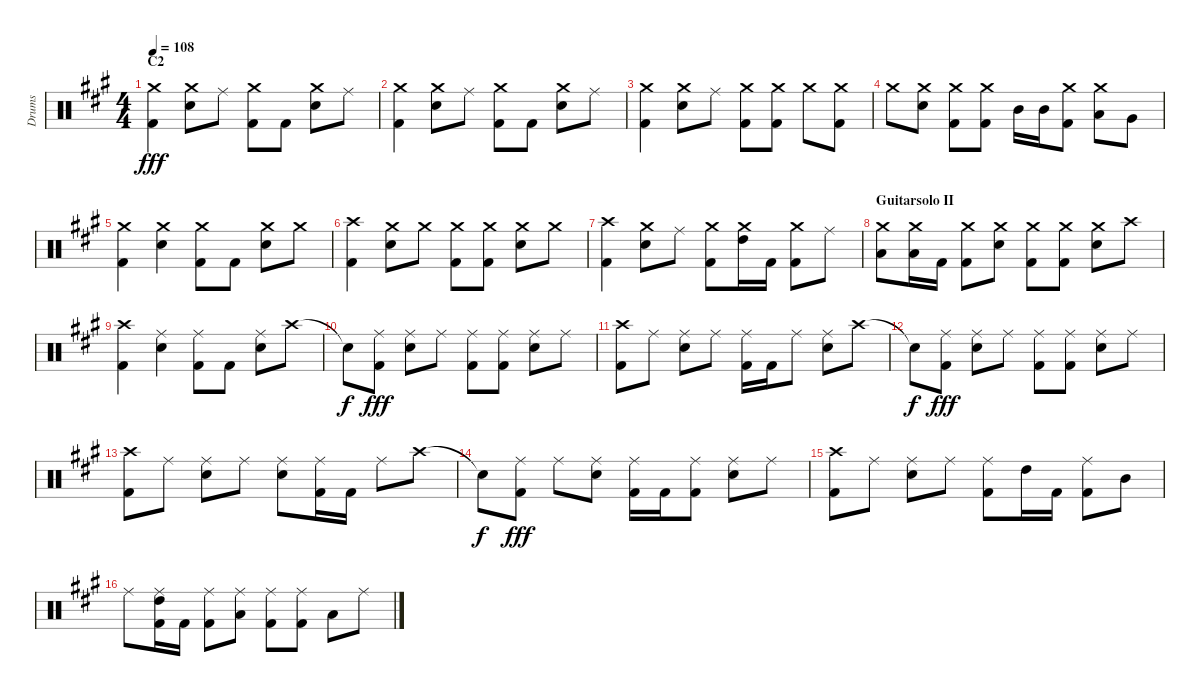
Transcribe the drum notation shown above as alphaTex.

\track ("Drums" "Drums") {instrument percussion}
\staff {score}
\articulation defaults
\ts (4 4)
\section ("" "C2")
\tempo 108
\clef neutral
\ks a
("Crash medium (hit)" "Kick (hit) 2").4{dy fff} ("Crash medium (hit)" "Electric Snare (hit)").8 "Ride (middle)".8 ("Crash medium (hit)" "Kick (hit) 2").8 "Kick (hit) 2".8 ("Crash medium (hit)" "Electric Snare (hit)").8 "Ride (middle)".8 |
("Crash medium (hit)" "Kick (hit) 2").4 ("Crash medium (hit)" "Electric Snare (hit)").8 "Ride (middle)".8 ("Crash medium (hit)" "Kick (hit) 2").8 "Kick (hit) 2".8 ("Crash medium (hit)" "Electric Snare (hit)").8 "Ride (middle)".8 |
("Crash medium (hit)" "Kick (hit) 2").4 ("Crash medium (hit)" "Electric Snare (hit)").8 "Ride (middle)".8 ("Crash medium (hit)" "Kick (hit) 2").8 ("Crash medium (hit)" "Kick (hit) 2").8 "Crash medium (hit)".8 ("Crash medium (hit)" "Kick (hit) 2").8 |
"Crash medium (hit)".8 ("Crash medium (hit)" "Electric Snare (hit)").8 ("Crash medium (hit)" "Kick (hit) 2").8 ("Crash medium (hit)" "Kick (hit) 2").8 "Mid Tom (hit)".16 "Mid Tom (hit)".16 ("Crash medium (hit)" "Kick (hit) 2").8 ("Crash medium (hit)" "Low Tom (hit)").8 "Very Low Tom (hit)".8 |
("Crash medium (hit)" "Kick (hit) 2").4 ("Crash medium (hit)" "Electric Snare (hit)").4 ("Crash medium (hit)" "Kick (hit) 2").8 "Kick (hit) 2".8 ("Crash medium (hit)" "Electric Snare (hit)").8 "Crash medium (hit)".8 |
("Crash high (hit)" "Kick (hit) 2").4 ("Crash medium (hit)" "Electric Snare (hit)").8 "Crash medium (hit)".8 ("Crash medium (hit)" "Kick (hit) 2").8 ("Crash medium (hit)" "Kick (hit) 2").8 ("Crash medium (hit)" "Electric Snare (hit)").8 "Crash medium (hit)".8 |
("Crash high (hit)" "Kick (hit) 2").4 ("Crash medium (hit)" "Electric Snare (hit)").8 "Ride (middle)".8 ("Crash medium (hit)" "Kick (hit) 2").8 ("Crash medium (hit)" "High Tom (hit)").16 "Kick (hit) 2".16 ("Crash medium (hit)" "Kick (hit) 2").8 "Ride (middle)".8 |
\section ("" "Guitarsolo II")
("Crash medium (hit)" "Low Tom (hit)").8 ("Crash medium (hit)" "Low Floor Tom (hit)").16 "Kick (hit) 2".16 ("Crash medium (hit)" "Kick (hit) 2").8 ("Crash medium (hit)" "Electric Snare (hit)").8 ("Crash medium (hit)" "Kick (hit) 2").8 ("Crash medium (hit)" "Kick (hit) 2").8 ("Crash medium (hit)" "Electric Snare (hit)").8 "Crash high (hit)".8 |
("Crash high (hit)" "Kick (hit) 2").4 ("Ride (middle)" "Electric Snare (hit)").4 ("Ride (middle)" "Kick (hit) 2").8 "Kick (hit) 2".8 ("Ride (middle)" "Electric Snare (hit)").8 "Crash high (hit)".8 |
"Snare (hit)"{t}.8{dy f} ("Ride (middle)" "Kick (hit) 2").8{dy fff} ("Ride (middle)" "Electric Snare (hit)").8 "Ride (middle)".8 ("Ride (middle)" "Kick (hit) 2").8 ("Ride (middle)" "Kick (hit) 2").8 ("Ride (middle)" "Electric Snare (hit)").8 "Ride (middle)".8 |
("Crash high (hit)" "Kick (hit) 2").8 "Ride (middle)".8 ("Ride (middle)" "Electric Snare (hit)").8 "Ride (middle)".8 ("Ride (middle)" "Kick (hit) 2").16 "Kick (hit) 2".16 "Ride (middle)".8 ("Ride (middle)" "Electric Snare (hit)").8 "Crash high (hit)".8 |
"Snare (hit)"{t}.8{dy f} ("Ride (middle)" "Kick (hit) 2").8{dy fff} ("Ride (middle)" "Electric Snare (hit)").8 "Ride (middle)".8 ("Ride (middle)" "Kick (hit) 2").8 ("Ride (middle)" "Kick (hit) 2").8 ("Ride (middle)" "Electric Snare (hit)").8 "Ride (middle)".8 |
("Crash high (hit)" "Kick (hit) 2").8 "Ride (middle)".8 ("Ride (middle)" "Electric Snare (hit)").8 "Ride (middle)".8 ("Ride (middle)" "Electric Snare (hit)").8 ("Ride (middle)" "Kick (hit) 2").16 "Kick (hit) 2".16 "Ride (middle)".8 "Crash high (hit)".8 |
"Snare (hit)"{t}.8{dy f} ("Ride (middle)" "Kick (hit) 2").8{dy fff} "Ride (middle)".8 ("Ride (middle)" "Electric Snare (hit)").8 ("Ride (middle)" "Kick (hit) 2").16 "Kick (hit) 2".16 ("Ride (middle)" "Kick (hit) 2").8 ("Ride (middle)" "Electric Snare (hit)").8 "Ride (middle)".8 |
("Crash high (hit)" "Kick (hit) 2").8 "Ride (middle)".8 ("Ride (middle)" "Electric Snare (hit)").8 "Ride (middle)".8 ("Ride (middle)" "Kick (hit) 2").8 "High Tom (hit)".16 "Kick (hit) 2".16 ("Ride (middle)" "Kick (hit) 2").8 "Mid Tom (hit)".8 |
"Ride (middle)".8 ("Ride (middle)" "High Tom (hit)" "Kick (hit) 2").16 "Kick (hit) 2".16 ("Ride (middle)" "Kick (hit) 2").8 ("Ride (middle)" "Low Tom (hit)").8 ("Ride (middle)" "Kick (hit) 2").8 ("Ride (middle)" "Kick (hit) 2").8 "Low Floor Tom (hit)".8 "Ride (middle)".8
